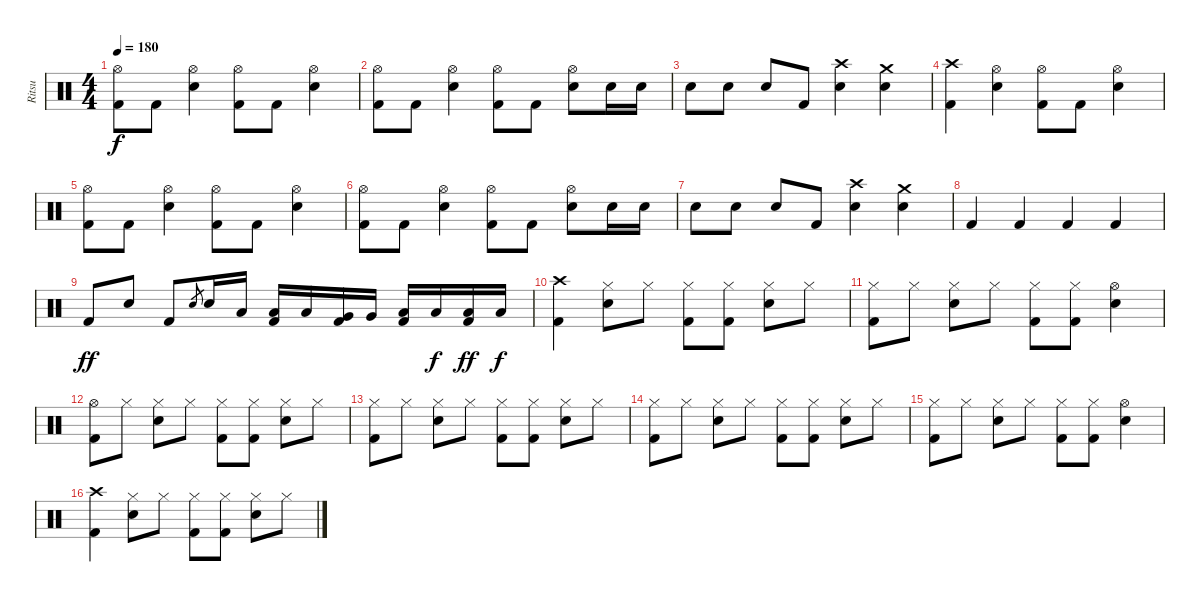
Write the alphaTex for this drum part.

\track ("Ritsu" "Ritsu") {instrument percussion}
\staff {score}
\articulation defaults
\ts (4 4)
\tempo 180
\clef neutral
\ks c
("Hi-Hat (open)" "Kick (hit) 2").8{dy f} "Kick (hit) 2".8 ("Hi-Hat (open)" "Snare (hit) 2").4 ("Hi-Hat (open)" "Kick (hit) 2").8 "Kick (hit) 2".8 ("Hi-Hat (open)" "Snare (hit) 2").4 |
("Hi-Hat (open)" "Kick (hit) 2").8 "Kick (hit) 2".8 ("Hi-Hat (open)" "Snare (hit) 2").4 ("Hi-Hat (open)" "Kick (hit) 2").8 "Kick (hit) 2".8 ("Hi-Hat (open)" "Snare (hit) 2").8 "Snare (hit) 2".16 "Snare (hit) 2".16 |
"Snare (hit) 2".8 "Snare (hit) 2".8 "Snare (hit) 2".8 "Kick (hit) 2".8 ("Crash high (hit)" "Snare (hit) 2").4 ("Crash medium (hit)" "Snare (hit) 2").4 |
("Crash high (hit)" "Kick (hit) 2").4 ("Hi-Hat (open)" "Snare (hit) 2").4 ("Hi-Hat (open)" "Kick (hit) 2").8 "Kick (hit) 2".8 ("Hi-Hat (open)" "Snare (hit) 2").4 |
("Hi-Hat (open)" "Kick (hit) 2").8 "Kick (hit) 2".8 ("Hi-Hat (open)" "Snare (hit) 2").4 ("Hi-Hat (open)" "Kick (hit) 2").8 "Kick (hit) 2".8 ("Hi-Hat (open)" "Snare (hit) 2").4 |
("Hi-Hat (open)" "Kick (hit) 2").8 "Kick (hit) 2".8 ("Hi-Hat (open)" "Snare (hit) 2").4 ("Hi-Hat (open)" "Kick (hit) 2").8 "Kick (hit) 2".8 ("Hi-Hat (open)" "Snare (hit) 2").8 "Snare (hit) 2".16 "Snare (hit) 2".16 |
"Snare (hit) 2".8 "Snare (hit) 2".8 "Snare (hit) 2".8 "Kick (hit) 2".8 ("Crash high (hit)" "Snare (hit) 2").4 ("Crash medium (hit)" "Snare (hit) 2").4 |
"Kick (hit) 2".4 "Kick (hit) 2".4 "Kick (hit) 2".4 "Kick (hit) 2".4 |
"Kick (hit) 2".8{dy ff} "Snare (hit) 2".8 "Kick (hit) 2".8 "Snare (hit) 2".8{gr} "Snare (hit) 2".16 "Low Tom (hit)".16 ("Low Tom (hit)" "Kick (hit) 2").16 "Low Tom (hit)".16 ("Very Low Tom (hit)" "Kick (hit) 2").16 "Very Low Tom (hit)".16 ("Low Floor Tom (hit)" "Kick (hit) 2").16 "Low Floor Tom (hit)".16{dy f} ("Low Floor Tom (hit)" "Kick (hit) 2").16{dy ff} "Low Floor Tom (hit)".16{dy f} |
("Crash high (hit)" "Kick (hit) 2").4 ("Hi-Hat (closed)" "Snare (hit) 2").8 "Hi-Hat (closed)".8 ("Hi-Hat (closed)" "Kick (hit) 2").8 ("Hi-Hat (closed)" "Kick (hit) 2").8 ("Hi-Hat (closed)" "Snare (hit) 2").8 "Hi-Hat (closed)".8 |
("Hi-Hat (closed)" "Kick (hit) 2").8 "Hi-Hat (closed)".8 ("Hi-Hat (closed)" "Snare (hit) 2").8 "Hi-Hat (closed)".8 ("Hi-Hat (closed)" "Kick (hit) 2").8 ("Hi-Hat (closed)" "Kick (hit) 2").8 ("Hi-Hat (open)" "Snare (hit) 2").4 |
("Hi-Hat (open)" "Kick (hit) 2").8 "Hi-Hat (closed)".8 ("Hi-Hat (closed)" "Snare (hit) 2").8 "Hi-Hat (closed)".8 ("Hi-Hat (closed)" "Kick (hit) 2").8 ("Hi-Hat (closed)" "Kick (hit) 2").8 ("Hi-Hat (closed)" "Snare (hit) 2").8 "Hi-Hat (closed)".8 |
("Hi-Hat (closed)" "Kick (hit) 2").8 "Hi-Hat (closed)".8 ("Hi-Hat (closed)" "Snare (hit) 2").8 "Hi-Hat (closed)".8 ("Hi-Hat (closed)" "Kick (hit) 2").8 ("Hi-Hat (closed)" "Kick (hit) 2").8 ("Hi-Hat (closed)" "Snare (hit) 2").8 "Hi-Hat (closed)".8 |
("Hi-Hat (closed)" "Kick (hit) 2").8 "Hi-Hat (closed)".8 ("Hi-Hat (closed)" "Snare (hit) 2").8 "Hi-Hat (closed)".8 ("Hi-Hat (closed)" "Kick (hit) 2").8 ("Hi-Hat (closed)" "Kick (hit) 2").8 ("Hi-Hat (closed)" "Snare (hit) 2").8 "Hi-Hat (closed)".8 |
("Hi-Hat (closed)" "Kick (hit) 2").8 "Hi-Hat (closed)".8 ("Hi-Hat (closed)" "Snare (hit) 2").8 "Hi-Hat (closed)".8 ("Hi-Hat (closed)" "Kick (hit) 2").8 ("Hi-Hat (closed)" "Kick (hit) 2").8 ("Hi-Hat (open)" "Snare (hit) 2").4 |
("Crash high (hit)" "Kick (hit) 2").4 ("Hi-Hat (closed)" "Snare (hit) 2").8 "Hi-Hat (closed)".8 ("Hi-Hat (closed)" "Kick (hit) 2").8 ("Hi-Hat (closed)" "Kick (hit) 2").8 ("Hi-Hat (closed)" "Snare (hit) 2").8 "Hi-Hat (closed)".8
